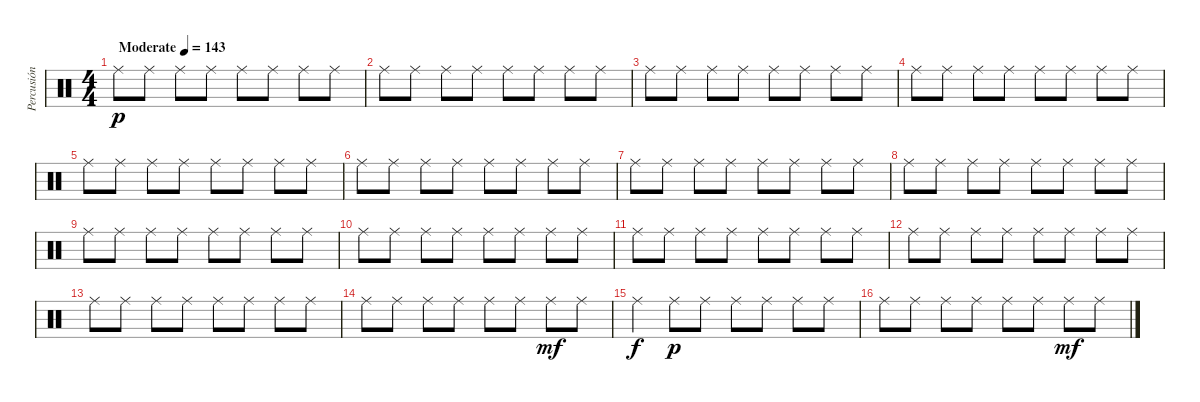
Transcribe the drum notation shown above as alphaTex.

\track ("Percusión" "Percusión") {instrument percussion}
\staff {score}
\articulation defaults
\ts (4 4)
\tempo (143 "Moderate")
\clef neutral
\ks c "Ride (middle)".8{dy p} "Ride (middle)".8 "Ride (middle)".8 "Ride (middle)".8 "Ride (middle)".8 "Ride (middle)".8 "Ride (middle)".8 "Ride (middle)".8
|
"Ride (middle)".8 "Ride (middle)".8 "Ride (middle)".8 "Ride (middle)".8 "Ride (middle)".8 "Ride (middle)".8 "Ride (middle)".8 "Ride (middle)".8 |
"Ride (middle)".8 "Ride (middle)".8 "Ride (middle)".8 "Ride (middle)".8 "Ride (middle)".8 "Ride (middle)".8 "Ride (middle)".8 "Ride (middle)".8 |
"Ride (middle)".8 "Ride (middle)".8 "Ride (middle)".8 "Ride (middle)".8 "Ride (middle)".8 "Ride (middle)".8 "Ride (middle)".8 "Ride (middle)".8 |
"Ride (middle)".8 "Ride (middle)".8 "Ride (middle)".8 "Ride (middle)".8 "Ride (middle)".8 "Ride (middle)".8 "Ride (middle)".8 "Ride (middle)".8 |
"Ride (middle)".8 "Ride (middle)".8 "Ride (middle)".8 "Ride (middle)".8 "Ride (middle)".8 "Ride (middle)".8 "Ride (middle)".8 "Ride (middle)".8 |
"Ride (middle)".8 "Ride (middle)".8 "Ride (middle)".8 "Ride (middle)".8 "Ride (middle)".8 "Ride (middle)".8 "Ride (middle)".8 "Ride (middle)".8 |
"Ride (middle)".8 "Ride (middle)".8 "Ride (middle)".8 "Ride (middle)".8 "Ride (middle)".8 "Ride (middle)".8 "Ride (middle)".8 "Ride (middle)".8 |
"Ride (middle)".8 "Ride (middle)".8 "Ride (middle)".8 "Ride (middle)".8 "Ride (middle)".8 "Ride (middle)".8 "Ride (middle)".8 "Ride (middle)".8 |
"Ride (middle)".8 "Ride (middle)".8 "Ride (middle)".8 "Ride (middle)".8 "Ride (middle)".8 "Ride (middle)".8 "Ride (middle)".8 "Ride (middle)".8 |
"Ride (middle)".8 "Ride (middle)".8 "Ride (middle)".8 "Ride (middle)".8 "Ride (middle)".8 "Ride (middle)".8 "Ride (middle)".8 "Ride (middle)".8 |
"Ride (middle)".8 "Ride (middle)".8 "Ride (middle)".8 "Ride (middle)".8 "Ride (middle)".8 "Ride (middle)".8 "Ride (middle)".8 "Ride (middle)".8 |
"Ride (middle)".8 "Ride (middle)".8 "Ride (middle)".8 "Ride (middle)".8 "Ride (middle)".8 "Ride (middle)".8 "Ride (middle)".8 "Ride (middle)".8 |
"Ride (middle)".8 "Ride (middle)".8 "Ride (middle)".8 "Ride (middle)".8 "Ride (middle)".8 "Ride (middle)".8 "Ride (middle)".8{dy mf} "Ride (middle)".8 |
"Ride (middle)".4{dy f} "Ride (middle)".8{dy p} "Ride (middle)".8 "Ride (middle)".8 "Ride (middle)".8 "Ride (middle)".8 "Ride (middle)".8 |
"Ride (middle)".8 "Ride (middle)".8 "Ride (middle)".8 "Ride (middle)".8 "Ride (middle)".8 "Ride (middle)".8 "Ride (middle)".8{dy mf} "Ride (middle)".8
